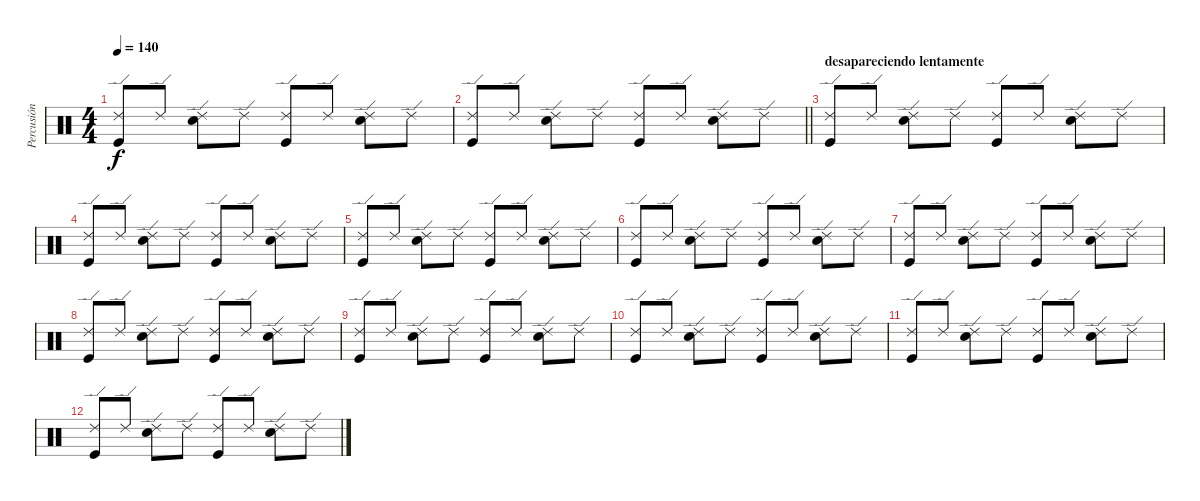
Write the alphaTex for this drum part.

\track ("Percusión" "Percusión") {instrument percussion}
\staff {score}
\articulation defaults
\ts (4 4)
\tempo 140
\clef neutral
\ks c
("Ride (edge) 2" "Kick (hit)").8{dy f} "Ride (edge) 2".8 ("Ride (edge) 2" "Snare (hit) 2").8 "Ride (edge) 2".8 ("Ride (edge) 2" "Kick (hit)").8 "Ride (edge) 2".8 ("Ride (edge) 2" "Snare (hit) 2").8 "Ride (edge) 2".8 |
\barLineRight lightlight
("Ride (edge) 2" "Kick (hit)").8 "Ride (edge) 2".8 ("Ride (edge) 2" "Snare (hit) 2").8 "Ride (edge) 2".8 ("Ride (edge) 2" "Kick (hit)").8 "Ride (edge) 2".8 ("Ride (edge) 2" "Snare (hit) 2").8 "Ride (edge) 2".8 |
\section ("" "desapareciendo lentamente")
("Ride (edge) 2" "Kick (hit)").8 "Ride (edge) 2".8 ("Ride (edge) 2" "Snare (hit) 2").8 "Ride (edge) 2".8 ("Ride (edge) 2" "Kick (hit)").8 "Ride (edge) 2".8 ("Ride (edge) 2" "Snare (hit) 2").8 "Ride (edge) 2".8 |
("Ride (edge) 2" "Kick (hit)").8 "Ride (edge) 2".8 ("Ride (edge) 2" "Snare (hit) 2").8 "Ride (edge) 2".8 ("Ride (edge) 2" "Kick (hit)").8 "Ride (edge) 2".8 ("Ride (edge) 2" "Snare (hit) 2").8 "Ride (edge) 2".8 |
("Ride (edge) 2" "Kick (hit)").8 "Ride (edge) 2".8 ("Ride (edge) 2" "Snare (hit) 2").8 "Ride (edge) 2".8 ("Ride (edge) 2" "Kick (hit)").8 "Ride (edge) 2".8 ("Ride (edge) 2" "Snare (hit) 2").8 "Ride (edge) 2".8 |
("Ride (edge) 2" "Kick (hit)").8 "Ride (edge) 2".8 ("Ride (edge) 2" "Snare (hit) 2").8 "Ride (edge) 2".8 ("Ride (edge) 2" "Kick (hit)").8 "Ride (edge) 2".8 ("Ride (edge) 2" "Snare (hit) 2").8 "Ride (edge) 2".8 |
("Ride (edge) 2" "Kick (hit)").8 "Ride (edge) 2".8 ("Ride (edge) 2" "Snare (hit) 2").8 "Ride (edge) 2".8 ("Ride (edge) 2" "Kick (hit)").8 "Ride (edge) 2".8 ("Ride (edge) 2" "Snare (hit) 2").8 "Ride (edge) 2".8 |
("Ride (edge) 2" "Kick (hit)").8 "Ride (edge) 2".8 ("Ride (edge) 2" "Snare (hit) 2").8 "Ride (edge) 2".8 ("Ride (edge) 2" "Kick (hit)").8 "Ride (edge) 2".8 ("Ride (edge) 2" "Snare (hit) 2").8 "Ride (edge) 2".8 |
("Ride (edge) 2" "Kick (hit)").8 "Ride (edge) 2".8 ("Ride (edge) 2" "Snare (hit) 2").8 "Ride (edge) 2".8 ("Ride (edge) 2" "Kick (hit)").8 "Ride (edge) 2".8 ("Ride (edge) 2" "Snare (hit) 2").8 "Ride (edge) 2".8 |
("Ride (edge) 2" "Kick (hit)").8 "Ride (edge) 2".8 ("Ride (edge) 2" "Snare (hit) 2").8 "Ride (edge) 2".8 ("Ride (edge) 2" "Kick (hit)").8 "Ride (edge) 2".8 ("Ride (edge) 2" "Snare (hit) 2").8 "Ride (edge) 2".8 |
("Ride (edge) 2" "Kick (hit)").8 "Ride (edge) 2".8 ("Ride (edge) 2" "Snare (hit) 2").8 "Ride (edge) 2".8 ("Ride (edge) 2" "Kick (hit)").8 "Ride (edge) 2".8 ("Ride (edge) 2" "Snare (hit) 2").8 "Ride (edge) 2".8 |
("Ride (edge) 2" "Kick (hit)").8 "Ride (edge) 2".8 ("Ride (edge) 2" "Snare (hit) 2").8 "Ride (edge) 2".8 ("Ride (edge) 2" "Kick (hit)").8 "Ride (edge) 2".8 ("Ride (edge) 2" "Snare (hit) 2").8 "Ride (edge) 2".8
